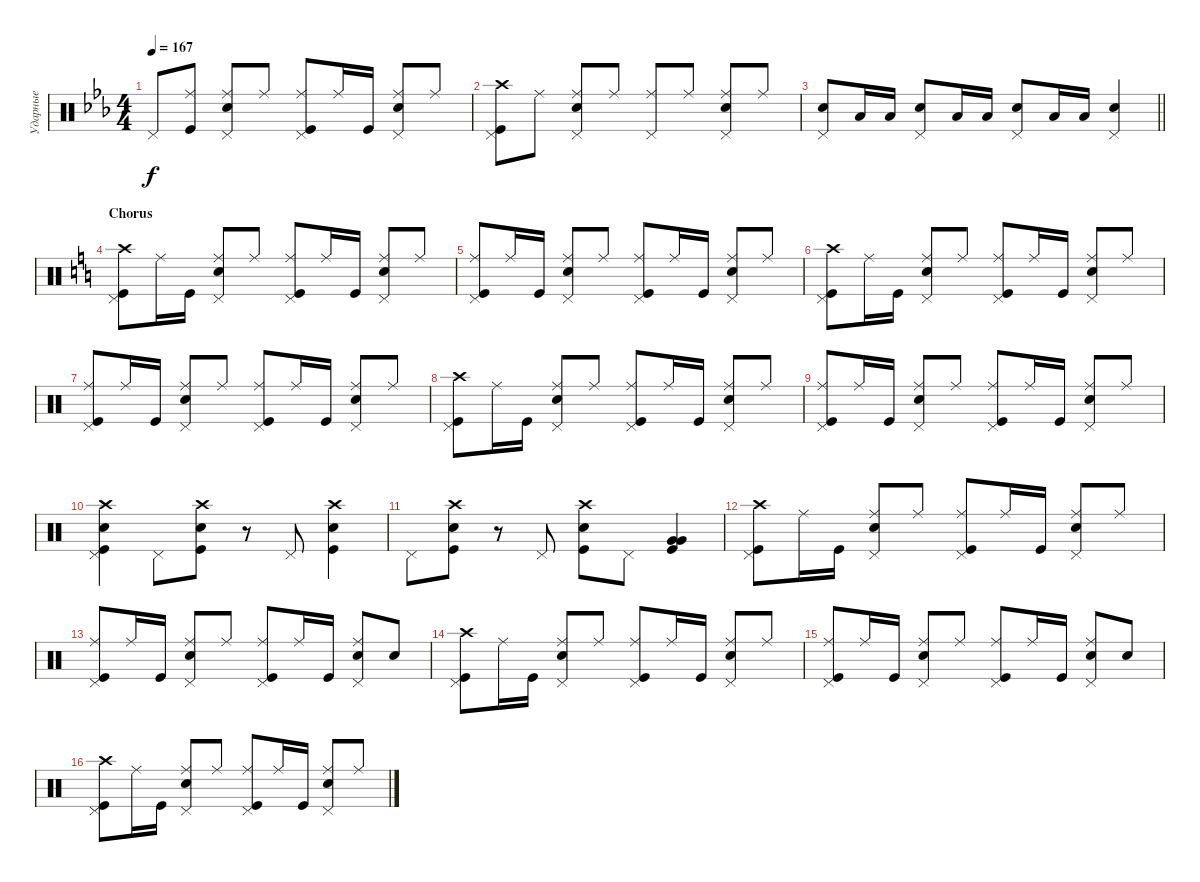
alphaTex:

\track ("Ударные" "Ударные") {instrument percussion}
\staff {score}
\articulation defaults
\ts (4 4)
\tempo 167
\clef neutral
\ks cminor "Pedal Hi-Hat (hit)".8{dy f}
("Ride (middle)" "Kick (hit)").8 ("Ride (middle)" "Snare (hit) 2" "Pedal Hi-Hat (hit)").8 "Ride (middle)".8 ("Ride (middle)" "Kick (hit)" "Pedal Hi-Hat (hit)").8 "Ride (middle)".16 "Kick (hit)".16 ("Ride (middle)" "Snare (hit) 2" "Pedal Hi-Hat (hit)").8 "Ride (middle)".8 |
("Pedal Hi-Hat (hit)" "Crash high (hit)" "Kick (hit)").8 "Ride (middle)".8 ("Ride (middle)" "Snare (hit) 2" "Pedal Hi-Hat (hit)").8 "Ride (middle)".8 ("Pedal Hi-Hat (hit)" "Ride (middle)").8 "Ride (middle)".8 ("Ride (middle)" "Snare (hit) 2" "Pedal Hi-Hat (hit)").8 "Ride (middle)".8 |
\barLineRight lightlight
("Pedal Hi-Hat (hit)" "Snare (hit) 2").8{bd 60} "Low Floor Tom (hit)".16 "Low Floor Tom (hit)".16 ("Snare (hit) 2" "Pedal Hi-Hat (hit)").8{bd 60} "Low Floor Tom (hit)".16 "Low Floor Tom (hit)".16 ("Snare (hit) 2" "Pedal Hi-Hat (hit)").8{bd 60} "Low Floor Tom (hit)".16 "Low Floor Tom (hit)".16 ("Snare (hit) 2" "Pedal Hi-Hat (hit)").4{bd 60} |
\section ("" "Chorus")
\ks aminor
("Kick (hit)" "Pedal Hi-Hat (hit)" "Crash high (hit)").8 "Ride (middle)".16 "Kick (hit)".16 ("Ride (middle)" "Snare (hit) 2" "Pedal Hi-Hat (hit)").8 "Ride (middle)".8 ("Ride (middle)" "Kick (hit)" "Pedal Hi-Hat (hit)").8 "Ride (middle)".16 "Kick (hit)".16 ("Ride (middle)" "Snare (hit) 2" "Pedal Hi-Hat (hit)").8 "Ride (middle)".8 |
("Kick (hit)" "Ride (middle)" "Pedal Hi-Hat (hit)").8 "Ride (middle)".16 "Kick (hit)".16 ("Snare (hit) 2" "Ride (middle)" "Pedal Hi-Hat (hit)").8 "Ride (middle)".8 ("Ride (middle)" "Kick (hit)" "Pedal Hi-Hat (hit)").8 "Ride (middle)".16 "Kick (hit)".16 ("Snare (hit) 2" "Ride (middle)" "Pedal Hi-Hat (hit)").8 "Ride (middle)".8 |
("Kick (hit)" "Pedal Hi-Hat (hit)" "Crash high (hit)").8 "Ride (middle)".16 "Kick (hit)".16 ("Ride (middle)" "Snare (hit) 2" "Pedal Hi-Hat (hit)").8 "Ride (middle)".8 ("Ride (middle)" "Kick (hit)" "Pedal Hi-Hat (hit)").8 "Ride (middle)".16 "Kick (hit)".16 ("Ride (middle)" "Snare (hit) 2" "Pedal Hi-Hat (hit)").8 "Ride (middle)".8 |
("Kick (hit)" "Ride (middle)" "Pedal Hi-Hat (hit)").8 "Ride (middle)".16 "Kick (hit)".16 ("Snare (hit) 2" "Ride (middle)" "Pedal Hi-Hat (hit)").8 "Ride (middle)".8 ("Ride (middle)" "Kick (hit)" "Pedal Hi-Hat (hit)").8 "Ride (middle)".16 "Kick (hit)".16 ("Snare (hit) 2" "Ride (middle)" "Pedal Hi-Hat (hit)").8 "Ride (middle)".8 |
("Kick (hit)" "Pedal Hi-Hat (hit)" "Crash high (hit)").8 "Ride (middle)".16 "Kick (hit)".16 ("Ride (middle)" "Snare (hit) 2" "Pedal Hi-Hat (hit)").8 "Ride (middle)".8 ("Ride (middle)" "Kick (hit)" "Pedal Hi-Hat (hit)").8 "Ride (middle)".16 "Kick (hit)".16 ("Ride (middle)" "Snare (hit) 2" "Pedal Hi-Hat (hit)").8 "Ride (middle)".8 |
("Kick (hit)" "Ride (middle)" "Pedal Hi-Hat (hit)").8 "Ride (middle)".16 "Kick (hit)".16 ("Snare (hit) 2" "Ride (middle)" "Pedal Hi-Hat (hit)").8 "Ride (middle)".8 ("Ride (middle)" "Kick (hit)" "Pedal Hi-Hat (hit)").8 "Ride (middle)".16 "Kick (hit)".16 ("Snare (hit) 2" "Ride (middle)" "Pedal Hi-Hat (hit)").8 "Ride (middle)".8 |
("Snare (hit) 2" "Crash high (hit)" "Kick (hit)" "Pedal Hi-Hat (hit)").4 "Pedal Hi-Hat (hit)".8 ("Crash high (hit)" "Kick (hit)" "Snare (hit) 2").8 r.8 "Pedal Hi-Hat (hit)".8 ("Crash high (hit)" "Snare (hit) 2" "Kick (hit)").4 |
"Pedal Hi-Hat (hit)".8 ("Crash high (hit)" "Kick (hit)" "Snare (hit) 2").8 r.8 "Pedal Hi-Hat (hit)".8 ("Kick (hit)" "Snare (hit) 2" "Crash high (hit)").8 "Pedal Hi-Hat (hit)".8 ("Kick (hit)" "Very Low Tom (hit)" "Very Low Tom (hit)").4{bd 60} |
("Kick (hit)" "Pedal Hi-Hat (hit)" "Crash high (hit)").8 "Ride (middle)".16 "Kick (hit)".16 ("Ride (middle)" "Snare (hit) 2" "Pedal Hi-Hat (hit)").8 "Ride (middle)".8 ("Ride (middle)" "Kick (hit)" "Pedal Hi-Hat (hit)").8 "Ride (middle)".16 "Kick (hit)".16 ("Ride (middle)" "Snare (hit) 2" "Pedal Hi-Hat (hit)").8 "Ride (middle)".8 |
("Kick (hit)" "Ride (middle)" "Pedal Hi-Hat (hit)").8 "Ride (middle)".16 "Kick (hit)".16 ("Snare (hit) 2" "Ride (middle)" "Pedal Hi-Hat (hit)").8 "Ride (middle)".8 ("Ride (middle)" "Kick (hit)" "Pedal Hi-Hat (hit)").8 "Ride (middle)".16 "Kick (hit)".16 ("Ride (middle)" "Snare (hit) 2" "Pedal Hi-Hat (hit)").8 "Snare (hit) 2".8 |
("Kick (hit)" "Pedal Hi-Hat (hit)" "Crash high (hit)").8 "Ride (middle)".16 "Kick (hit)".16 ("Ride (middle)" "Snare (hit) 2" "Pedal Hi-Hat (hit)").8 "Ride (middle)".8 ("Ride (middle)" "Kick (hit)" "Pedal Hi-Hat (hit)").8 "Ride (middle)".16 "Kick (hit)".16 ("Ride (middle)" "Snare (hit) 2" "Pedal Hi-Hat (hit)").8 "Ride (middle)".8 |
("Kick (hit)" "Ride (middle)" "Pedal Hi-Hat (hit)").8 "Ride (middle)".16 "Kick (hit)".16 ("Snare (hit) 2" "Ride (middle)" "Pedal Hi-Hat (hit)").8 "Ride (middle)".8 ("Ride (middle)" "Kick (hit)" "Pedal Hi-Hat (hit)").8 "Ride (middle)".16 "Kick (hit)".16 ("Ride (middle)" "Snare (hit) 2" "Pedal Hi-Hat (hit)").8 "Snare (hit) 2".8 |
("Kick (hit)" "Pedal Hi-Hat (hit)" "Crash high (hit)").8 "Ride (middle)".16 "Kick (hit)".16 ("Ride (middle)" "Snare (hit) 2" "Pedal Hi-Hat (hit)").8 "Ride (middle)".8 ("Ride (middle)" "Kick (hit)" "Pedal Hi-Hat (hit)").8 "Ride (middle)".16 "Kick (hit)".16 ("Ride (middle)" "Snare (hit) 2" "Pedal Hi-Hat (hit)").8 "Ride (middle)".8
